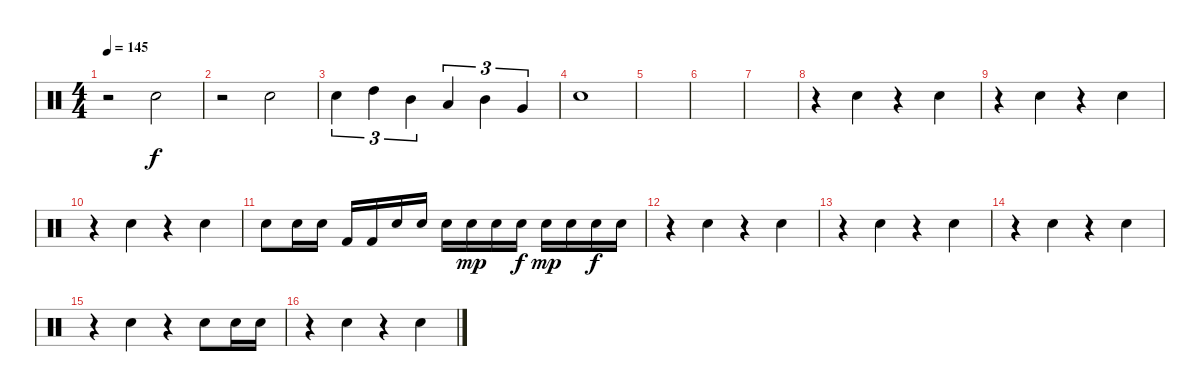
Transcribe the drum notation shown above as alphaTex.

\track "" {instrument percussion}
\staff {score}
\articulation defaults
\ts (4 4)
\tempo 145
\clef neutral
\ks c
r.2{dy f} "Electric Snare (hit)".2 |
r.2 "Electric Snare (hit)".2 |
"Electric Snare (hit)".4{tu (3 2)} "High Tom (hit)".4{tu (3 2)} "Mid Tom (hit)".4{tu (3 2)} "Low Tom (hit)".4{tu (3 2)} "Mid Tom (hit)".4{tu (3 2)} "Very Low Tom (hit)".4{tu (3 2)} |
"Electric Snare (hit)".1 |
|
|
|
r.4 "Electric Snare (hit)".4 r.4 "Electric Snare (hit)".4 |
r.4 "Electric Snare (hit)".4 r.4 "Electric Snare (hit)".4 |
r.4 "Electric Snare (hit)".4 r.4 "Electric Snare (hit)".4 |
"Electric Snare (hit)".8 "Electric Snare (hit)".16 "Electric Snare (hit)".16 "Kick (hit) 2".16 "Kick (hit) 2".16 "Electric Snare (hit)".16 "Electric Snare (hit)".16 "Electric Snare (hit)".16 "Electric Snare (hit)".16{dy mp} "Electric Snare (hit)".16 "Electric Snare (hit)".16{dy f} "Electric Snare (hit)".16{dy mp} "Electric Snare (hit)".16 "Electric Snare (hit)".16{dy f} "Electric Snare (hit)".16 |
r.4 "Electric Snare (hit)".4 r.4 "Electric Snare (hit)".4 |
r.4 "Electric Snare (hit)".4 r.4 "Electric Snare (hit)".4 |
r.4 "Electric Snare (hit)".4 r.4 "Electric Snare (hit)".4 |
r.4 "Electric Snare (hit)".4 r.4 "Electric Snare (hit)".8 "Electric Snare (hit)".16 "Electric Snare (hit)".16 |
r.4 "Electric Snare (hit)".4 r.4 "Electric Snare (hit)".4
